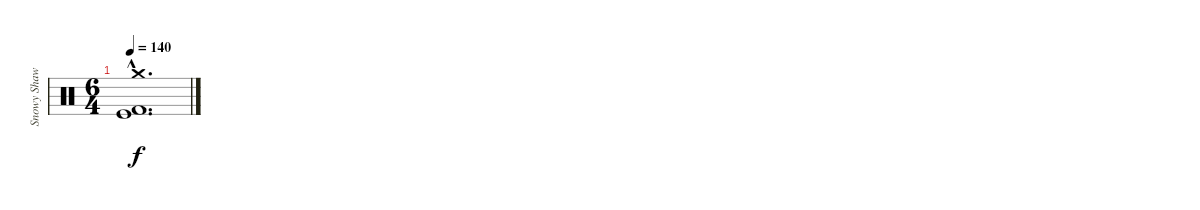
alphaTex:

\track ("Snowy Shaw" "Snowy Shaw") {instrument percussion}
\staff {score}
\articulation defaults
\ts (6 4)
\tempo 140
\clef neutral
\ks c
("Crash medium (hit)"{hac} "Kick (hit) 2"{hac} "Kick (hit)"{hac}).1{d dy f}
